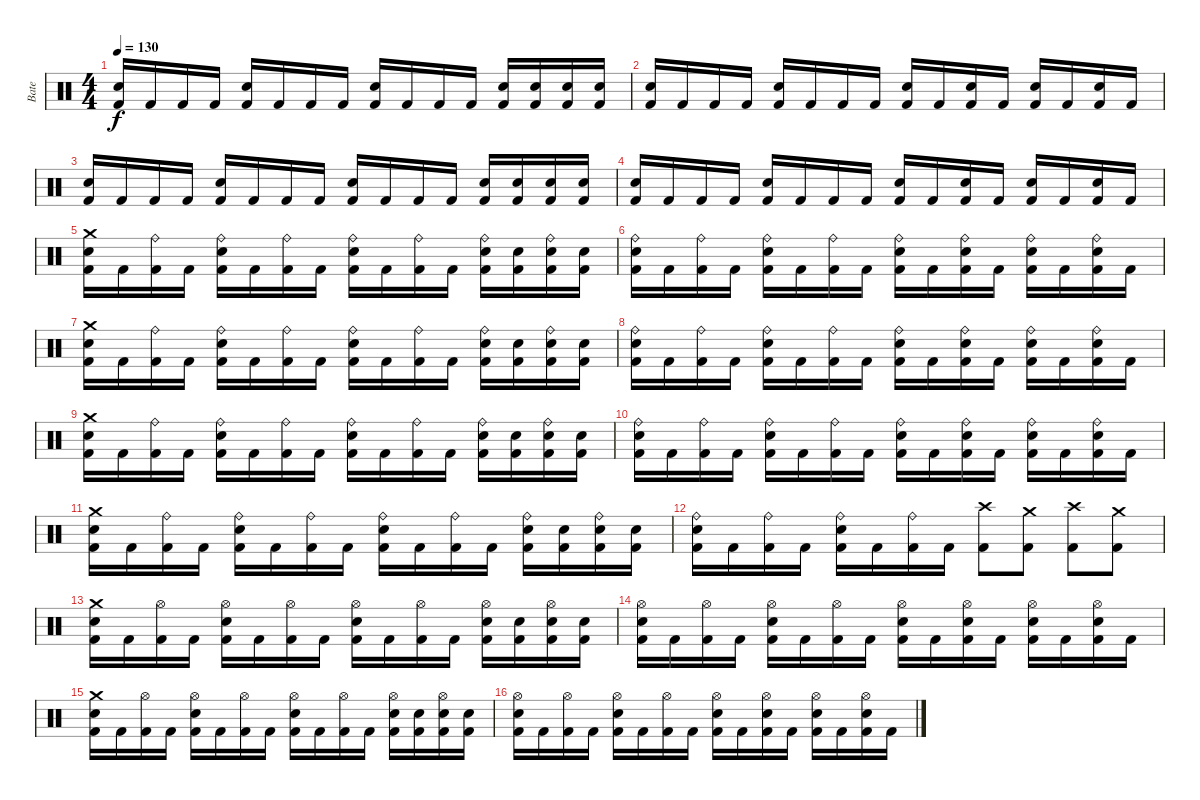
\track ("Bate" "Bate") {instrument percussion}
\staff {score}
\articulation defaults
\ts (4 4)
\tempo 130
\clef neutral
\ks c
("Snare (hit) 2" "Kick (hit) 2").16{dy f} "Kick (hit) 2".16 "Kick (hit) 2".16 "Kick (hit) 2".16 ("Snare (hit) 2" "Kick (hit) 2").16 "Kick (hit) 2".16 "Kick (hit) 2".16 "Kick (hit) 2".16 ("Snare (hit) 2" "Kick (hit) 2").16 "Kick (hit) 2".16 "Kick (hit) 2".16 "Kick (hit) 2".16 ("Snare (hit) 2" "Kick (hit) 2").16 ("Snare (hit) 2" "Kick (hit) 2").16 ("Snare (hit) 2" "Kick (hit) 2").16 ("Snare (hit) 2" "Kick (hit) 2").16 |
("Snare (hit) 2" "Kick (hit) 2").16 "Kick (hit) 2".16 "Kick (hit) 2".16 "Kick (hit) 2".16 ("Snare (hit) 2" "Kick (hit) 2").16 "Kick (hit) 2".16 "Kick (hit) 2".16 "Kick (hit) 2".16 ("Snare (hit) 2" "Kick (hit) 2").16 "Kick (hit) 2".16 ("Snare (hit) 2" "Kick (hit) 2").16 "Kick (hit) 2".16 ("Snare (hit) 2" "Kick (hit) 2").16 "Kick (hit) 2".16 ("Snare (hit) 2" "Kick (hit) 2").16 "Kick (hit) 2".16 |
("Snare (hit) 2" "Kick (hit) 2").16 "Kick (hit) 2".16 "Kick (hit) 2".16 "Kick (hit) 2".16 ("Snare (hit) 2" "Kick (hit) 2").16 "Kick (hit) 2".16 "Kick (hit) 2".16 "Kick (hit) 2".16 ("Snare (hit) 2" "Kick (hit) 2").16 "Kick (hit) 2".16 "Kick (hit) 2".16 "Kick (hit) 2".16 ("Snare (hit) 2" "Kick (hit) 2").16 ("Snare (hit) 2" "Kick (hit) 2").16 ("Snare (hit) 2" "Kick (hit) 2").16 ("Snare (hit) 2" "Kick (hit) 2").16 |
("Snare (hit) 2" "Kick (hit) 2").16 "Kick (hit) 2".16 "Kick (hit) 2".16 "Kick (hit) 2".16 ("Snare (hit) 2" "Kick (hit) 2").16 "Kick (hit) 2".16 "Kick (hit) 2".16 "Kick (hit) 2".16 ("Snare (hit) 2" "Kick (hit) 2").16 "Kick (hit) 2".16 ("Snare (hit) 2" "Kick (hit) 2").16 "Kick (hit) 2".16 ("Snare (hit) 2" "Kick (hit) 2").16 "Kick (hit) 2".16 ("Snare (hit) 2" "Kick (hit) 2").16 "Kick (hit) 2".16 |
("Crash medium (hit)" "Snare (hit) 2" "Kick (hit) 2").16 "Kick (hit) 2".16 ("Ride (bell)" "Kick (hit) 2").16 "Kick (hit) 2".16 ("Ride (bell)" "Snare (hit) 2" "Kick (hit) 2").16 "Kick (hit) 2".16 ("Ride (bell)" "Kick (hit) 2").16 "Kick (hit) 2".16 ("Ride (bell)" "Snare (hit) 2" "Kick (hit) 2").16 "Kick (hit) 2".16 ("Ride (bell)" "Kick (hit) 2").16 "Kick (hit) 2".16 ("Ride (bell)" "Snare (hit) 2" "Kick (hit) 2").16 ("Snare (hit) 2" "Kick (hit) 2").16 ("Ride (bell)" "Snare (hit) 2" "Kick (hit) 2").16 ("Snare (hit) 2" "Kick (hit) 2").16 |
("Ride (bell)" "Snare (hit) 2" "Kick (hit) 2").16 "Kick (hit) 2".16 ("Ride (bell)" "Kick (hit) 2").16 "Kick (hit) 2".16 ("Ride (bell)" "Snare (hit) 2" "Kick (hit) 2").16 "Kick (hit) 2".16 ("Ride (bell)" "Kick (hit) 2").16 "Kick (hit) 2".16 ("Ride (bell)" "Snare (hit) 2" "Kick (hit) 2").16 "Kick (hit) 2".16 ("Ride (bell)" "Snare (hit) 2" "Kick (hit) 2").16 "Kick (hit) 2".16 ("Ride (bell)" "Snare (hit) 2" "Kick (hit) 2").16 "Kick (hit) 2".16 ("Ride (bell)" "Snare (hit) 2" "Kick (hit) 2").16 "Kick (hit) 2".16 |
("Crash medium (hit)" "Snare (hit) 2" "Kick (hit) 2").16 "Kick (hit) 2".16 ("Ride (bell)" "Kick (hit) 2").16 "Kick (hit) 2".16 ("Ride (bell)" "Snare (hit) 2" "Kick (hit) 2").16 "Kick (hit) 2".16 ("Ride (bell)" "Kick (hit) 2").16 "Kick (hit) 2".16 ("Ride (bell)" "Snare (hit) 2" "Kick (hit) 2").16 "Kick (hit) 2".16 ("Ride (bell)" "Kick (hit) 2").16 "Kick (hit) 2".16 ("Ride (bell)" "Snare (hit) 2" "Kick (hit) 2").16 ("Snare (hit) 2" "Kick (hit) 2").16 ("Ride (bell)" "Snare (hit) 2" "Kick (hit) 2").16 ("Snare (hit) 2" "Kick (hit) 2").16 |
("Ride (bell)" "Snare (hit) 2" "Kick (hit) 2").16 "Kick (hit) 2".16 ("Ride (bell)" "Kick (hit) 2").16 "Kick (hit) 2".16 ("Ride (bell)" "Snare (hit) 2" "Kick (hit) 2").16 "Kick (hit) 2".16 ("Ride (bell)" "Kick (hit) 2").16 "Kick (hit) 2".16 ("Ride (bell)" "Snare (hit) 2" "Kick (hit) 2").16 "Kick (hit) 2".16 ("Ride (bell)" "Snare (hit) 2" "Kick (hit) 2").16 "Kick (hit) 2".16 ("Ride (bell)" "Snare (hit) 2" "Kick (hit) 2").16 "Kick (hit) 2".16 ("Ride (bell)" "Snare (hit) 2" "Kick (hit) 2").16 "Kick (hit) 2".16 |
("Crash medium (hit)" "Snare (hit) 2" "Kick (hit) 2").16 "Kick (hit) 2".16 ("Ride (bell)" "Kick (hit) 2").16 "Kick (hit) 2".16 ("Ride (bell)" "Snare (hit) 2" "Kick (hit) 2").16 "Kick (hit) 2".16 ("Ride (bell)" "Kick (hit) 2").16 "Kick (hit) 2".16 ("Ride (bell)" "Snare (hit) 2" "Kick (hit) 2").16 "Kick (hit) 2".16 ("Ride (bell)" "Kick (hit) 2").16 "Kick (hit) 2".16 ("Ride (bell)" "Snare (hit) 2" "Kick (hit) 2").16 ("Snare (hit) 2" "Kick (hit) 2").16 ("Ride (bell)" "Snare (hit) 2" "Kick (hit) 2").16 ("Snare (hit) 2" "Kick (hit) 2").16 |
("Ride (bell)" "Snare (hit) 2" "Kick (hit) 2").16 "Kick (hit) 2".16 ("Ride (bell)" "Kick (hit) 2").16 "Kick (hit) 2".16 ("Ride (bell)" "Snare (hit) 2" "Kick (hit) 2").16 "Kick (hit) 2".16 ("Ride (bell)" "Kick (hit) 2").16 "Kick (hit) 2".16 ("Ride (bell)" "Snare (hit) 2" "Kick (hit) 2").16 "Kick (hit) 2".16 ("Ride (bell)" "Snare (hit) 2" "Kick (hit) 2").16 "Kick (hit) 2".16 ("Ride (bell)" "Snare (hit) 2" "Kick (hit) 2").16 "Kick (hit) 2".16 ("Ride (bell)" "Snare (hit) 2" "Kick (hit) 2").16 "Kick (hit) 2".16 |
("Crash medium (hit)" "Snare (hit) 2" "Kick (hit) 2").16 "Kick (hit) 2".16 ("Ride (bell)" "Kick (hit) 2").16 "Kick (hit) 2".16 ("Ride (bell)" "Snare (hit) 2" "Kick (hit) 2").16 "Kick (hit) 2".16 ("Ride (bell)" "Kick (hit) 2").16 "Kick (hit) 2".16 ("Ride (bell)" "Snare (hit) 2" "Kick (hit) 2").16 "Kick (hit) 2".16 ("Ride (bell)" "Kick (hit) 2").16 "Kick (hit) 2".16 ("Ride (bell)" "Snare (hit) 2" "Kick (hit) 2").16 ("Snare (hit) 2" "Kick (hit) 2").16 ("Ride (bell)" "Snare (hit) 2" "Kick (hit) 2").16 ("Snare (hit) 2" "Kick (hit) 2").16 |
("Ride (bell)" "Snare (hit) 2" "Kick (hit) 2").16 "Kick (hit) 2".16 ("Ride (bell)" "Kick (hit) 2").16 "Kick (hit) 2".16 ("Ride (bell)" "Snare (hit) 2" "Kick (hit) 2").16 "Kick (hit) 2".16 ("Ride (bell)" "Kick (hit) 2").16 "Kick (hit) 2".16 ("Crash high (hit)" "Kick (hit) 2").8 ("Crash medium (hit)" "Kick (hit) 2").8 ("Crash high (hit)" "Kick (hit) 2").8 ("Crash medium (hit)" "Kick (hit) 2").8 |
("Crash medium (hit)" "Snare (hit) 2" "Kick (hit) 2").16 "Kick (hit) 2".16 ("Hi-Hat (open)" "Kick (hit) 2").16 "Kick (hit) 2".16 ("Hi-Hat (open)" "Snare (hit) 2" "Kick (hit) 2").16 "Kick (hit) 2".16 ("Hi-Hat (open)" "Kick (hit) 2").16 "Kick (hit) 2".16 ("Hi-Hat (open)" "Snare (hit) 2" "Kick (hit) 2").16 "Kick (hit) 2".16 ("Hi-Hat (open)" "Kick (hit) 2").16 "Kick (hit) 2".16 ("Hi-Hat (open)" "Snare (hit) 2" "Kick (hit) 2").16 ("Snare (hit) 2" "Kick (hit) 2").16 ("Hi-Hat (open)" "Snare (hit) 2" "Kick (hit) 2").16 ("Snare (hit) 2" "Kick (hit) 2").16 |
("Hi-Hat (open)" "Snare (hit) 2" "Kick (hit) 2").16 "Kick (hit) 2".16 ("Hi-Hat (open)" "Kick (hit) 2").16 "Kick (hit) 2".16 ("Hi-Hat (open)" "Snare (hit) 2" "Kick (hit) 2").16 "Kick (hit) 2".16 ("Hi-Hat (open)" "Kick (hit) 2").16 "Kick (hit) 2".16 ("Hi-Hat (open)" "Snare (hit) 2" "Kick (hit) 2").16 "Kick (hit) 2".16 ("Hi-Hat (open)" "Snare (hit) 2" "Kick (hit) 2").16 "Kick (hit) 2".16 ("Hi-Hat (open)" "Snare (hit) 2" "Kick (hit) 2").16 "Kick (hit) 2".16 ("Hi-Hat (open)" "Snare (hit) 2" "Kick (hit) 2").16 "Kick (hit) 2".16 |
("Crash medium (hit)" "Snare (hit) 2" "Kick (hit) 2").16 "Kick (hit) 2".16 ("Hi-Hat (open)" "Kick (hit) 2").16 "Kick (hit) 2".16 ("Hi-Hat (open)" "Snare (hit) 2" "Kick (hit) 2").16 "Kick (hit) 2".16 ("Hi-Hat (open)" "Kick (hit) 2").16 "Kick (hit) 2".16 ("Hi-Hat (open)" "Snare (hit) 2" "Kick (hit) 2").16 "Kick (hit) 2".16 ("Hi-Hat (open)" "Kick (hit) 2").16 "Kick (hit) 2".16 ("Hi-Hat (open)" "Snare (hit) 2" "Kick (hit) 2").16 ("Snare (hit) 2" "Kick (hit) 2").16 ("Hi-Hat (open)" "Snare (hit) 2" "Kick (hit) 2").16 ("Snare (hit) 2" "Kick (hit) 2").16 |
("Hi-Hat (open)" "Snare (hit) 2" "Kick (hit) 2").16 "Kick (hit) 2".16 ("Hi-Hat (open)" "Kick (hit) 2").16 "Kick (hit) 2".16 ("Hi-Hat (open)" "Snare (hit) 2" "Kick (hit) 2").16 "Kick (hit) 2".16 ("Hi-Hat (open)" "Kick (hit) 2").16 "Kick (hit) 2".16 ("Hi-Hat (open)" "Snare (hit) 2" "Kick (hit) 2").16 "Kick (hit) 2".16 ("Hi-Hat (open)" "Snare (hit) 2" "Kick (hit) 2").16 "Kick (hit) 2".16 ("Hi-Hat (open)" "Snare (hit) 2" "Kick (hit) 2").16 "Kick (hit) 2".16 ("Hi-Hat (open)" "Snare (hit) 2" "Kick (hit) 2").16 "Kick (hit) 2".16
